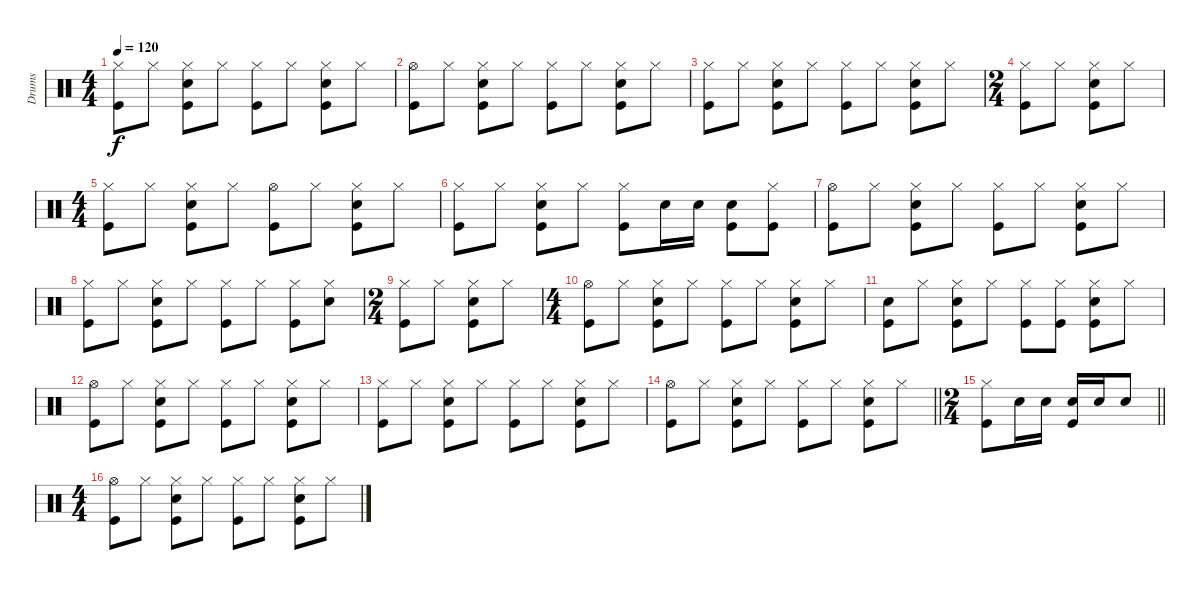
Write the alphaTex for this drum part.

\track ("Drums" "Drums") {instrument percussion}
\staff {score}
\articulation defaults
\ts (4 4)
\tempo 120
\clef neutral
\ks c
("Hi-Hat (closed)" "Kick (hit)").8{dy f} "Hi-Hat (closed)".8 ("Hi-Hat (closed)" "Snare (hit) 2" "Kick (hit)").8 "Hi-Hat (closed)".8 ("Hi-Hat (closed)" "Kick (hit)").8 "Hi-Hat (closed)".8 ("Hi-Hat (closed)" "Snare (hit) 2" "Kick (hit)").8 "Hi-Hat (closed)".8 |
("Hi-Hat (open)" "Kick (hit)").8 "Hi-Hat (closed)".8 ("Hi-Hat (closed)" "Snare (hit) 2" "Kick (hit)").8 "Hi-Hat (closed)".8 ("Hi-Hat (closed)" "Kick (hit)").8 "Hi-Hat (closed)".8 ("Hi-Hat (closed)" "Snare (hit) 2" "Kick (hit)").8 "Hi-Hat (closed)".8 |
("Hi-Hat (closed)" "Kick (hit)").8 "Hi-Hat (closed)".8 ("Hi-Hat (closed)" "Snare (hit) 2" "Kick (hit)").8 "Hi-Hat (closed)".8 ("Hi-Hat (closed)" "Kick (hit)").8 "Hi-Hat (closed)".8 ("Hi-Hat (closed)" "Snare (hit) 2" "Kick (hit)").8 "Hi-Hat (closed)".8 |
\ts (2 4)
("Hi-Hat (closed)" "Kick (hit)").8 "Hi-Hat (closed)".8 ("Hi-Hat (closed)" "Snare (hit) 2" "Kick (hit)").8 "Hi-Hat (closed)".8 |
\ts (4 4)
("Hi-Hat (closed)" "Kick (hit)").8 "Hi-Hat (closed)".8 ("Hi-Hat (closed)" "Snare (hit) 2" "Kick (hit)").8 "Hi-Hat (closed)".8 ("Hi-Hat (open)" "Kick (hit)").8 "Hi-Hat (closed)".8 ("Hi-Hat (closed)" "Snare (hit) 2" "Kick (hit)").8 "Hi-Hat (closed)".8 |
("Hi-Hat (closed)" "Kick (hit)").8 "Hi-Hat (closed)".8 ("Hi-Hat (closed)" "Snare (hit) 2" "Kick (hit)").8 "Hi-Hat (closed)".8 ("Hi-Hat (closed)" "Kick (hit)").8 "Snare (hit) 2".16 "Snare (hit) 2".16 ("Snare (hit) 2" "Kick (hit)").8 ("Hi-Hat (closed)" "Kick (hit)").8 |
("Hi-Hat (open)" "Kick (hit)").8 "Hi-Hat (closed)".8 ("Hi-Hat (closed)" "Snare (hit) 2" "Kick (hit)").8 "Hi-Hat (closed)".8 ("Hi-Hat (closed)" "Kick (hit)").8 "Hi-Hat (closed)".8 ("Hi-Hat (closed)" "Snare (hit) 2" "Kick (hit)").8 "Hi-Hat (closed)".8 |
("Hi-Hat (closed)" "Kick (hit)").8 "Hi-Hat (closed)".8 ("Hi-Hat (closed)" "Snare (hit) 2" "Kick (hit)").8 "Hi-Hat (closed)".8 ("Hi-Hat (closed)" "Kick (hit)").8 "Hi-Hat (closed)".8 ("Hi-Hat (closed)" "Kick (hit)").8 ("Hi-Hat (closed)" "Snare (hit) 2").8 |
\ts (2 4)
("Hi-Hat (closed)" "Kick (hit)").8 "Hi-Hat (closed)".8 ("Hi-Hat (closed)" "Snare (hit) 2" "Kick (hit)").8 "Hi-Hat (closed)".8 |
\ts (4 4)
("Hi-Hat (open)" "Kick (hit)").8 "Hi-Hat (closed)".8 ("Hi-Hat (closed)" "Snare (hit) 2" "Kick (hit)").8 "Hi-Hat (closed)".8 ("Hi-Hat (closed)" "Kick (hit)").8 "Hi-Hat (closed)".8 ("Hi-Hat (closed)" "Snare (hit) 2" "Kick (hit)").8 "Hi-Hat (closed)".8 |
("Snare (hit)" "Kick (hit)").8 "Hi-Hat (closed)".8 ("Hi-Hat (closed)" "Snare (hit) 2" "Kick (hit)").8 "Hi-Hat (closed)".8 ("Hi-Hat (closed)" "Kick (hit)").8 ("Hi-Hat (closed)" "Kick (hit)").8 ("Hi-Hat (closed)" "Snare (hit) 2" "Kick (hit)").8 "Hi-Hat (closed)".8 |
("Hi-Hat (open)" "Kick (hit)").8 "Hi-Hat (closed)".8 ("Hi-Hat (closed)" "Snare (hit) 2" "Kick (hit)").8 "Hi-Hat (closed)".8 ("Hi-Hat (closed)" "Kick (hit)").8 "Hi-Hat (closed)".8 ("Hi-Hat (closed)" "Snare (hit) 2" "Kick (hit)").8 "Hi-Hat (closed)".8 |
("Hi-Hat (closed)" "Kick (hit)").8 "Hi-Hat (closed)".8 ("Hi-Hat (closed)" "Snare (hit) 2" "Kick (hit)").8 "Hi-Hat (closed)".8 ("Hi-Hat (closed)" "Kick (hit)").8 "Hi-Hat (closed)".8 ("Hi-Hat (closed)" "Snare (hit) 2" "Kick (hit)").8 "Hi-Hat (closed)".8 |
\barLineRight lightlight
("Hi-Hat (open)" "Kick (hit)").8 "Hi-Hat (closed)".8 ("Hi-Hat (closed)" "Snare (hit) 2" "Kick (hit)").8 "Hi-Hat (closed)".8 ("Hi-Hat (closed)" "Kick (hit)").8 "Hi-Hat (closed)".8 ("Hi-Hat (closed)" "Snare (hit) 2" "Kick (hit)").8 "Hi-Hat (closed)".8 |
\ts (2 4)
\barLineRight lightlight
("Hi-Hat (closed)" "Kick (hit)").8 "Snare (hit) 2".16 "Snare (hit) 2".16 ("Snare (hit) 2" "Kick (hit)").16 "Snare (hit) 2".16 "Snare (hit) 2".8 |
\ts (4 4)
("Hi-Hat (open)" "Kick (hit)").8 "Hi-Hat (closed)".8 ("Hi-Hat (closed)" "Snare (hit) 2" "Kick (hit)").8 "Hi-Hat (closed)".8 ("Hi-Hat (closed)" "Kick (hit)").8 "Hi-Hat (closed)".8 ("Hi-Hat (closed)" "Snare (hit) 2" "Kick (hit)").8 "Hi-Hat (closed)".8
